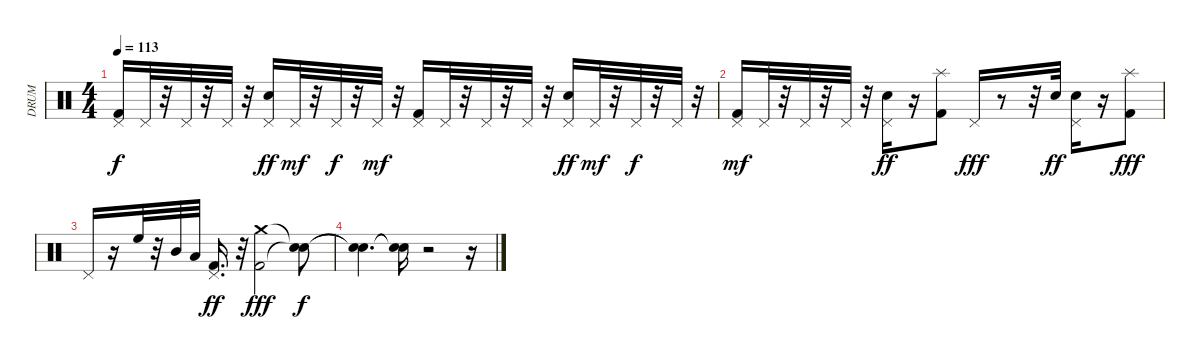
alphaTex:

\track ("DRUM" "DRUM") {instrument percussion}
\staff {score}
\articulation defaults
\ts (4 4)
\tempo 113
\clef neutral
\ks c
("Pedal Hi-Hat (hit)" "Kick (hit) 2").16{dy f} "Pedal Hi-Hat (hit)".32 r.32 "Pedal Hi-Hat (hit)".32 r.32 "Pedal Hi-Hat (hit)".32 r.32 ("Pedal Hi-Hat (hit)" "Snare (hit) 2").16{dy ff} "Pedal Hi-Hat (hit)".32{dy mf} r.32 "Pedal Hi-Hat (hit)".32{dy f} r.32 "Pedal Hi-Hat (hit)".32{dy mf} r.32 ("Pedal Hi-Hat (hit)" "Kick (hit) 2").16 "Pedal Hi-Hat (hit)".32 r.32 "Pedal Hi-Hat (hit)".32 r.32 "Pedal Hi-Hat (hit)".32 r.32 ("Pedal Hi-Hat (hit)" "Snare (hit) 2").16{dy ff} "Pedal Hi-Hat (hit)".32{dy mf} r.32 "Pedal Hi-Hat (hit)".32{dy f} r.32 "Pedal Hi-Hat (hit)".32 r.32 |
("Pedal Hi-Hat (hit)" "Kick (hit) 2").16{dy mf} "Pedal Hi-Hat (hit)".32 r.32 "Pedal Hi-Hat (hit)".32 r.32 "Pedal Hi-Hat (hit)".32 r.32 ("Pedal Hi-Hat (hit)" "Snare (hit) 2").16{dy ff} r.16 ("Splash (hit)" "Kick (hit) 2").8 "Pedal Hi-Hat (hit)".16{dy fff} r.8 r.32 "Snare (hit) 2".32{dy ff} ("Pedal Hi-Hat (hit)" "Snare (hit) 2").16 r.16 ("Kick (hit) 2" "Splash (hit)").8{dy fff} |
"Pedal Hi-Hat (hit)".16 r.16 "High Floor Tom (hit)".32 r.32 "Mid Tom (hit)".32 "Low Tom (hit)".32 ("Kick (hit) 2" "Pedal Hi-Hat (hit)").16{d dy ff} r.32 ("Kick (hit) 2" "Crash medium (hit)").2{dy fff} ("Snare (hit)"{t} "Snare (hit)"{t}).8{dy f} |
("Snare (hit)"{t} "Snare (hit)"{t}).4{d} ("Snare (hit)"{t} "Snare (hit)"{t}).16 r.2 r.16
